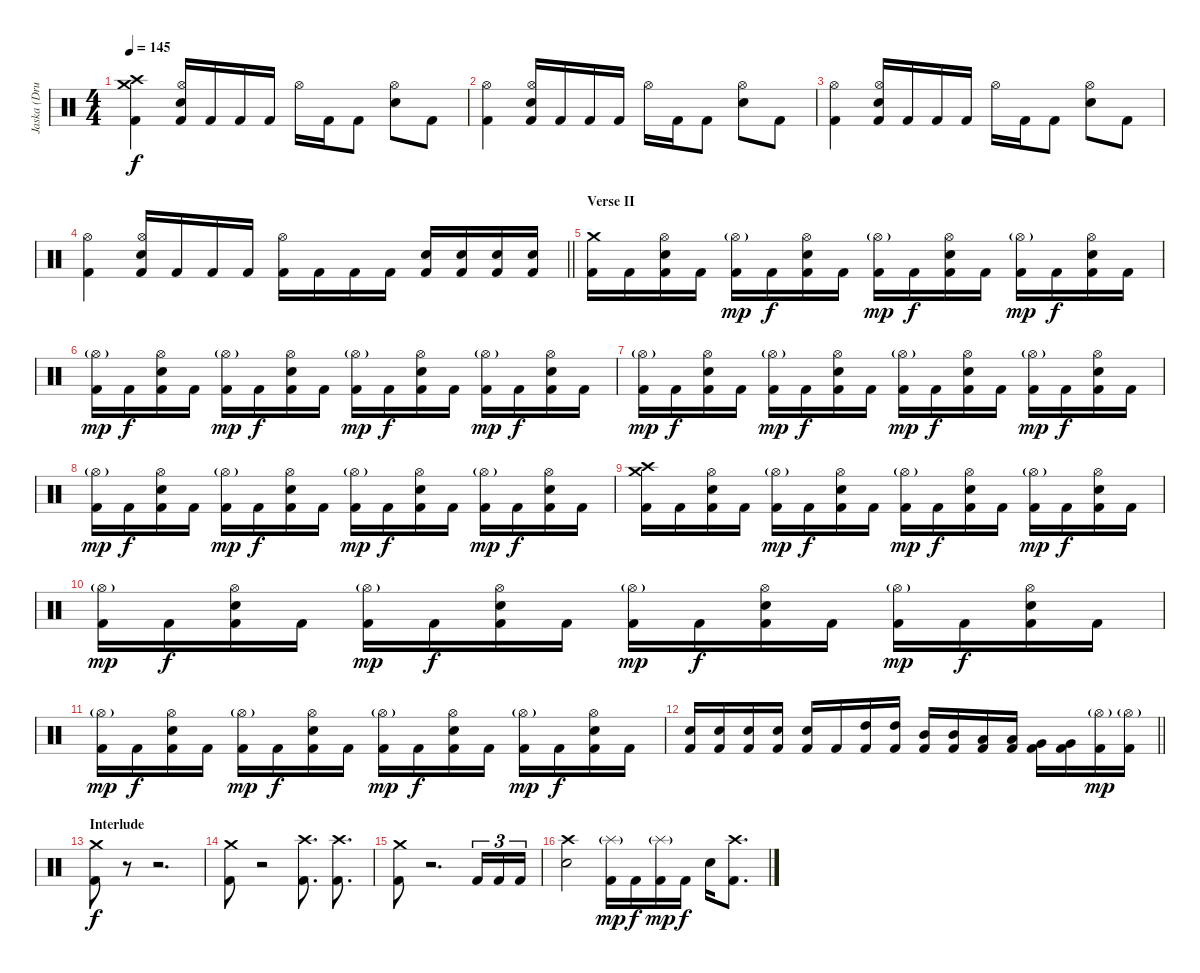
\track ("Jaska (Drums)" "Jaska (Dru") {instrument percussion}
\staff {score}
\articulation defaults
\ts (4 4)
\tempo 145
\clef neutral
\ks c
("Crash medium (hit)" "Crash high (hit)" "Kick (hit) 2").4{dy f} ("Hi-Hat (open)" "Electric Snare (hit)" "Kick (hit) 2").16 "Kick (hit) 2".16 "Kick (hit) 2".16 "Kick (hit) 2".16 "Hi-Hat (open)".16 "Kick (hit) 2".16 "Kick (hit) 2".8 ("Hi-Hat (open)" "Electric Snare (hit)").8 "Kick (hit) 2".8 |
("Hi-Hat (open)" "Kick (hit) 2").4 ("Hi-Hat (open)" "Electric Snare (hit)" "Kick (hit) 2").16 "Kick (hit) 2".16 "Kick (hit) 2".16 "Kick (hit) 2".16 "Hi-Hat (open)".16 "Kick (hit) 2".16 "Kick (hit) 2".8 ("Hi-Hat (open)" "Electric Snare (hit)").8 "Kick (hit) 2".8 |
("Hi-Hat (open)" "Kick (hit) 2").4 ("Hi-Hat (open)" "Electric Snare (hit)" "Kick (hit) 2").16 "Kick (hit) 2".16 "Kick (hit) 2".16 "Kick (hit) 2".16 "Hi-Hat (open)".16 "Kick (hit) 2".16 "Kick (hit) 2".8 ("Hi-Hat (open)" "Electric Snare (hit)").8 "Kick (hit) 2".8 |
\barLineRight lightlight
("Hi-Hat (open)" "Kick (hit) 2").4 ("Hi-Hat (open)" "Electric Snare (hit)" "Kick (hit) 2").16 "Kick (hit) 2".16 "Kick (hit) 2".16 "Kick (hit) 2".16 ("Hi-Hat (open)" "Kick (hit) 2").16 "Kick (hit) 2".16 "Kick (hit) 2".16 "Kick (hit) 2".16 ("Electric Snare (hit)" "Kick (hit) 2").16 ("Electric Snare (hit)" "Kick (hit) 2").16 ("Electric Snare (hit)" "Kick (hit) 2").16 ("Electric Snare (hit)" "Kick (hit) 2").16 |
\section ("" "Verse II")
("Crash medium (hit)" "Kick (hit) 2").16 "Kick (hit) 2".16 ("Hi-Hat (open)" "Electric Snare (hit)" "Kick (hit) 2").16 "Kick (hit) 2".16 ("Hi-Hat (open)"{g} "Kick (hit) 2").16{dy mp} "Kick (hit) 2".16{dy f} ("Hi-Hat (open)" "Electric Snare (hit)" "Kick (hit) 2").16 "Kick (hit) 2".16 ("Hi-Hat (open)"{g} "Kick (hit) 2").16{dy mp} "Kick (hit) 2".16{dy f} ("Hi-Hat (open)" "Electric Snare (hit)" "Kick (hit) 2").16 "Kick (hit) 2".16 ("Hi-Hat (open)"{g} "Kick (hit) 2").16{dy mp} "Kick (hit) 2".16{dy f} ("Hi-Hat (open)" "Electric Snare (hit)" "Kick (hit) 2").16 "Kick (hit) 2".16 |
("Hi-Hat (open)"{g} "Kick (hit) 2").16{dy mp} "Kick (hit) 2".16{dy f} ("Hi-Hat (open)" "Electric Snare (hit)" "Kick (hit) 2").16 "Kick (hit) 2".16 ("Hi-Hat (open)"{g} "Kick (hit) 2").16{dy mp} "Kick (hit) 2".16{dy f} ("Hi-Hat (open)" "Electric Snare (hit)" "Kick (hit) 2").16 "Kick (hit) 2".16 ("Hi-Hat (open)"{g} "Kick (hit) 2").16{dy mp} "Kick (hit) 2".16{dy f} ("Hi-Hat (open)" "Electric Snare (hit)" "Kick (hit) 2").16 "Kick (hit) 2".16 ("Hi-Hat (open)"{g} "Kick (hit) 2").16{dy mp} "Kick (hit) 2".16{dy f} ("Hi-Hat (open)" "Electric Snare (hit)" "Kick (hit) 2").16 "Kick (hit) 2".16 |
("Hi-Hat (open)"{g} "Kick (hit) 2").16{dy mp} "Kick (hit) 2".16{dy f} ("Hi-Hat (open)" "Electric Snare (hit)" "Kick (hit) 2").16 "Kick (hit) 2".16 ("Hi-Hat (open)"{g} "Kick (hit) 2").16{dy mp} "Kick (hit) 2".16{dy f} ("Hi-Hat (open)" "Electric Snare (hit)" "Kick (hit) 2").16 "Kick (hit) 2".16 ("Hi-Hat (open)"{g} "Kick (hit) 2").16{dy mp} "Kick (hit) 2".16{dy f} ("Hi-Hat (open)" "Electric Snare (hit)" "Kick (hit) 2").16 "Kick (hit) 2".16 ("Hi-Hat (open)"{g} "Kick (hit) 2").16{dy mp} "Kick (hit) 2".16{dy f} ("Hi-Hat (open)" "Electric Snare (hit)" "Kick (hit) 2").16 "Kick (hit) 2".16 |
("Hi-Hat (open)"{g} "Kick (hit) 2").16{dy mp} "Kick (hit) 2".16{dy f} ("Hi-Hat (open)" "Electric Snare (hit)" "Kick (hit) 2").16 "Kick (hit) 2".16 ("Hi-Hat (open)"{g} "Kick (hit) 2").16{dy mp} "Kick (hit) 2".16{dy f} ("Hi-Hat (open)" "Electric Snare (hit)" "Kick (hit) 2").16 "Kick (hit) 2".16 ("Hi-Hat (open)"{g} "Kick (hit) 2").16{dy mp} "Kick (hit) 2".16{dy f} ("Hi-Hat (open)" "Electric Snare (hit)" "Kick (hit) 2").16 "Kick (hit) 2".16 ("Hi-Hat (open)"{g} "Kick (hit) 2").16{dy mp} "Kick (hit) 2".16{dy f} ("Hi-Hat (open)" "Electric Snare (hit)" "Kick (hit) 2").16 "Kick (hit) 2".16 |
("Crash medium (hit)" "Crash high (hit)" "Kick (hit) 2").16 "Kick (hit) 2".16 ("Hi-Hat (open)" "Electric Snare (hit)" "Kick (hit) 2").16 "Kick (hit) 2".16 ("Hi-Hat (open)"{g} "Kick (hit) 2").16{dy mp} "Kick (hit) 2".16{dy f} ("Hi-Hat (open)" "Electric Snare (hit)" "Kick (hit) 2").16 "Kick (hit) 2".16 ("Hi-Hat (open)"{g} "Kick (hit) 2").16{dy mp} "Kick (hit) 2".16{dy f} ("Hi-Hat (open)" "Electric Snare (hit)" "Kick (hit) 2").16 "Kick (hit) 2".16 ("Hi-Hat (open)"{g} "Kick (hit) 2").16{dy mp} "Kick (hit) 2".16{dy f} ("Hi-Hat (open)" "Electric Snare (hit)" "Kick (hit) 2").16 "Kick (hit) 2".16 |
("Hi-Hat (open)"{g} "Kick (hit) 2").16{dy mp} "Kick (hit) 2".16{dy f} ("Hi-Hat (open)" "Electric Snare (hit)" "Kick (hit) 2").16 "Kick (hit) 2".16 ("Hi-Hat (open)"{g} "Kick (hit) 2").16{dy mp} "Kick (hit) 2".16{dy f} ("Hi-Hat (open)" "Electric Snare (hit)" "Kick (hit) 2").16 "Kick (hit) 2".16 ("Hi-Hat (open)"{g} "Kick (hit) 2").16{dy mp} "Kick (hit) 2".16{dy f} ("Hi-Hat (open)" "Electric Snare (hit)" "Kick (hit) 2").16 "Kick (hit) 2".16 ("Hi-Hat (open)"{g} "Kick (hit) 2").16{dy mp} "Kick (hit) 2".16{dy f} ("Hi-Hat (open)" "Electric Snare (hit)" "Kick (hit) 2").16 "Kick (hit) 2".16 |
("Hi-Hat (open)"{g} "Kick (hit) 2").16{dy mp} "Kick (hit) 2".16{dy f} ("Hi-Hat (open)" "Electric Snare (hit)" "Kick (hit) 2").16 "Kick (hit) 2".16 ("Hi-Hat (open)"{g} "Kick (hit) 2").16{dy mp} "Kick (hit) 2".16{dy f} ("Hi-Hat (open)" "Electric Snare (hit)" "Kick (hit) 2").16 "Kick (hit) 2".16 ("Hi-Hat (open)"{g} "Kick (hit) 2").16{dy mp} "Kick (hit) 2".16{dy f} ("Hi-Hat (open)" "Electric Snare (hit)" "Kick (hit) 2").16 "Kick (hit) 2".16 ("Hi-Hat (open)"{g} "Kick (hit) 2").16{dy mp} "Kick (hit) 2".16{dy f} ("Hi-Hat (open)" "Electric Snare (hit)" "Kick (hit) 2").16 "Kick (hit) 2".16 |
\barLineRight lightlight
("Electric Snare (hit)" "Kick (hit) 2").16 ("Electric Snare (hit)" "Kick (hit) 2").16 ("Electric Snare (hit)" "Kick (hit) 2").16 ("Electric Snare (hit)" "Kick (hit) 2").16 ("Electric Snare (hit)" "Kick (hit) 2").16 "Kick (hit) 2".16 ("High Tom (hit)" "Kick (hit) 2").16 ("High Tom (hit)" "Kick (hit) 2").16 ("Mid Tom (hit)" "Kick (hit) 2").16 ("Mid Tom (hit)" "Kick (hit) 2").16 ("Low Tom (hit)" "Kick (hit) 2").16 ("Low Tom (hit)" "Kick (hit) 2").16 ("Very Low Tom (hit)" "Kick (hit) 2").16 ("Very Low Tom (hit)" "Kick (hit) 2").16 ("Hi-Hat (open)"{g} "Kick (hit) 2").16{dy mp} ("Hi-Hat (open)"{g} "Kick (hit) 2").16 |
\section ("" "Interlude")
("Crash medium (hit)" "Kick (hit) 2").8{dy f} r.8{volume 0} r.2{d} |
("Crash medium (hit)" "Kick (hit) 2").8{volume 16} r.2{volume 0} ("Crash high (hit)" "Kick (hit) 2").8{d volume 16} ("Crash high (hit)" "Kick (hit) 2").8{d} |
("Crash medium (hit)" "Kick (hit) 2").8 r.2{d volume 0} "Kick (hit) 2".16{tu (3 2) volume 16} "Kick (hit) 2".16{tu (3 2)} "Kick (hit) 2".16{tu (3 2)} |
("Crash high (hit)" "Electric Snare (hit)").2 ("Splash (hit)"{g} "Kick (hit) 2").16{dy mp} "Kick (hit) 2".16{dy f} ("Splash (hit)"{g} "Kick (hit) 2").16{dy mp} "Kick (hit) 2".16{dy f} "Electric Snare (hit)".16 ("Crash high (hit)" "Kick (hit) 2").8{d}
